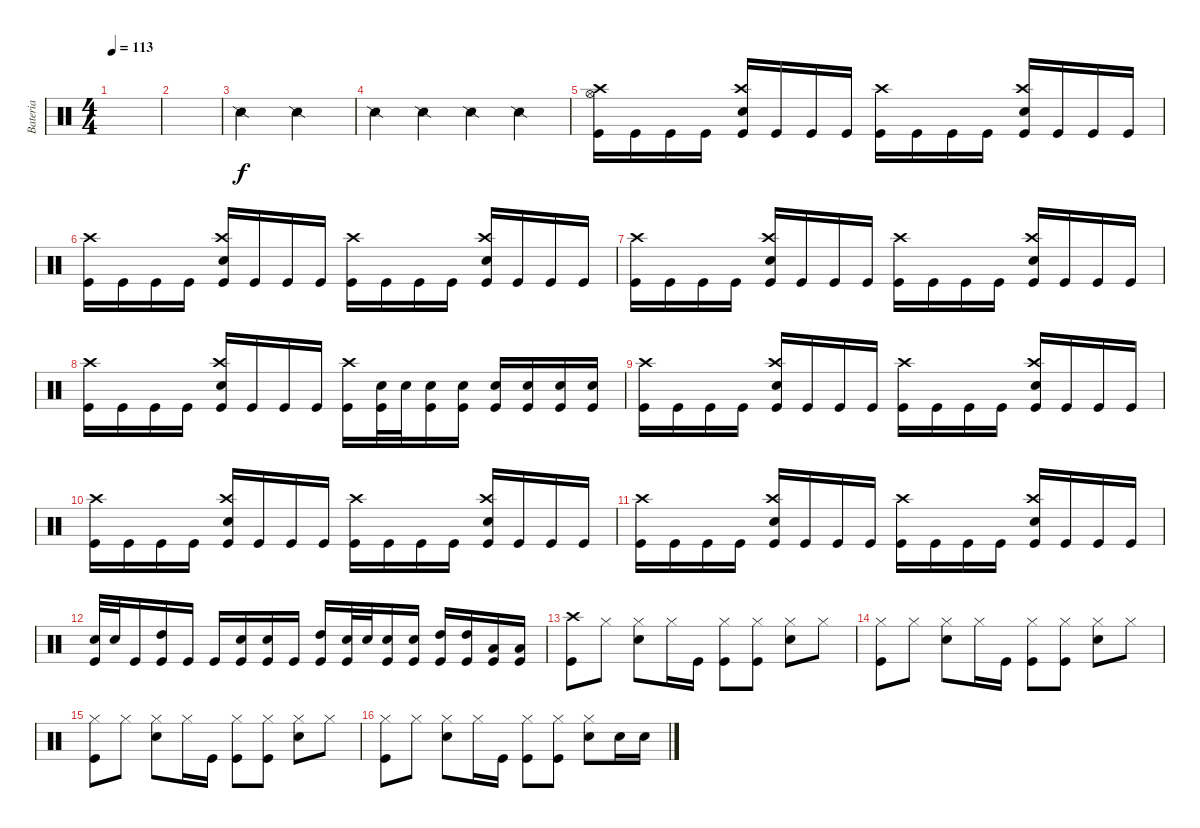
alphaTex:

\track ("Bateria" "Bateria") {instrument percussion}
\staff {score}
\articulation defaults
\ts (4 4)
\tempo 113
\clef neutral
\ks c
|
|
"Snare (side stick) 2".2 "Snare (side stick) 2".2 |
"Snare (side stick) 2".4 "Snare (side stick) 2".4 "Snare (side stick) 2".4 "Snare (side stick) 2".4 |
("Kick (hit)" "Crash high (hit)" "Hi-Hat (open)").16 "Kick (hit)".16 "Kick (hit)".16 "Kick (hit)".16 ("Kick (hit)" "Crash high (hit)" "Snare (hit) 2").16 "Kick (hit)".16 "Kick (hit)".16 "Kick (hit)".16 ("Kick (hit)" "Crash high (hit)").16 "Kick (hit)".16 "Kick (hit)".16 "Kick (hit)".16 ("Kick (hit)" "Crash high (hit)" "Snare (hit) 2").16 "Kick (hit)".16 "Kick (hit)".16 "Kick (hit)".16 |
("Kick (hit)" "Crash high (hit)").16 "Kick (hit)".16 "Kick (hit)".16 "Kick (hit)".16 ("Kick (hit)" "Crash high (hit)" "Snare (hit) 2").16 "Kick (hit)".16 "Kick (hit)".16 "Kick (hit)".16 ("Kick (hit)" "Crash high (hit)").16 "Kick (hit)".16 "Kick (hit)".16 "Kick (hit)".16 ("Kick (hit)" "Crash high (hit)" "Snare (hit) 2").16 "Kick (hit)".16 "Kick (hit)".16 "Kick (hit)".16 |
("Kick (hit)" "Crash high (hit)").16 "Kick (hit)".16 "Kick (hit)".16 "Kick (hit)".16 ("Kick (hit)" "Crash high (hit)" "Snare (hit) 2").16 "Kick (hit)".16 "Kick (hit)".16 "Kick (hit)".16 ("Kick (hit)" "Crash high (hit)").16 "Kick (hit)".16 "Kick (hit)".16 "Kick (hit)".16 ("Kick (hit)" "Crash high (hit)" "Snare (hit) 2").16 "Kick (hit)".16 "Kick (hit)".16 "Kick (hit)".16 |
("Kick (hit)" "Crash high (hit)").16 "Kick (hit)".16 "Kick (hit)".16 "Kick (hit)".16 ("Kick (hit)" "Crash high (hit)" "Snare (hit) 2").16 "Kick (hit)".16 "Kick (hit)".16 "Kick (hit)".16 ("Kick (hit)" "Crash high (hit)").16 ("Kick (hit)" "Snare (hit) 2").32 "Snare (hit) 2".32 ("Kick (hit)" "Snare (hit) 2").16 ("Kick (hit)" "Snare (hit) 2").16 ("Kick (hit)" "Snare (hit) 2").16 ("Kick (hit)" "Snare (hit) 2").16 ("Kick (hit)" "Snare (hit) 2").16 ("Kick (hit)" "Snare (hit) 2").16 |
("Kick (hit)" "Crash high (hit)").16 "Kick (hit)".16 "Kick (hit)".16 "Kick (hit)".16 ("Kick (hit)" "Crash high (hit)" "Snare (hit) 2").16 "Kick (hit)".16 "Kick (hit)".16 "Kick (hit)".16 ("Kick (hit)" "Crash high (hit)").16 "Kick (hit)".16 "Kick (hit)".16 "Kick (hit)".16 ("Kick (hit)" "Crash high (hit)" "Snare (hit) 2").16 "Kick (hit)".16 "Kick (hit)".16 "Kick (hit)".16 |
("Kick (hit)" "Crash high (hit)").16 "Kick (hit)".16 "Kick (hit)".16 "Kick (hit)".16 ("Kick (hit)" "Crash high (hit)" "Snare (hit) 2").16 "Kick (hit)".16 "Kick (hit)".16 "Kick (hit)".16 ("Kick (hit)" "Crash high (hit)").16 "Kick (hit)".16 "Kick (hit)".16 "Kick (hit)".16 ("Kick (hit)" "Crash high (hit)" "Snare (hit) 2").16 "Kick (hit)".16 "Kick (hit)".16 "Kick (hit)".16 |
("Kick (hit)" "Crash high (hit)").16 "Kick (hit)".16 "Kick (hit)".16 "Kick (hit)".16 ("Kick (hit)" "Crash high (hit)" "Snare (hit) 2").16 "Kick (hit)".16 "Kick (hit)".16 "Kick (hit)".16 ("Kick (hit)" "Crash high (hit)").16 "Kick (hit)".16 "Kick (hit)".16 "Kick (hit)".16 ("Kick (hit)" "Crash high (hit)" "Snare (hit) 2").16 "Kick (hit)".16 "Kick (hit)".16 "Kick (hit)".16 |
("Kick (hit)" "Snare (hit) 2").32 "Snare (hit) 2".32 "Kick (hit)".16 ("Kick (hit)" "High Tom (hit)").16 "Kick (hit)".16 "Kick (hit)".16 ("Kick (hit)" "Snare (hit) 2").16 ("Kick (hit)" "Snare (hit) 2").16 "Kick (hit)".16 ("Kick (hit)" "High Tom (hit)").16 ("Kick (hit)" "Snare (hit) 2").32 "Snare (hit) 2".32 ("Kick (hit)" "Snare (hit) 2").16 ("Kick (hit)" "Snare (hit) 2").16 ("Kick (hit)" "High Tom (hit)").16 ("Kick (hit)" "High Tom (hit)").16 ("Kick (hit)" "Low Tom (hit)").16 ("Kick (hit)" "Low Tom (hit)").16 |
("Kick (hit)" "Crash high (hit)").8 "Hi-Hat (closed)".8 ("Hi-Hat (closed)" "Snare (hit) 2").8 "Hi-Hat (closed)".16 "Kick (hit)".16 ("Kick (hit)" "Hi-Hat (closed)").8 ("Kick (hit)" "Hi-Hat (closed)").8 ("Hi-Hat (closed)" "Snare (hit) 2").8 "Hi-Hat (closed)".8 |
("Kick (hit)" "Hi-Hat (closed)").8 "Hi-Hat (closed)".8 ("Hi-Hat (closed)" "Snare (hit) 2").8 "Hi-Hat (closed)".16 "Kick (hit)".16 ("Kick (hit)" "Hi-Hat (closed)").8 ("Kick (hit)" "Hi-Hat (closed)").8 ("Hi-Hat (closed)" "Snare (hit) 2").8 "Hi-Hat (closed)".8 |
("Kick (hit)" "Hi-Hat (closed)").8 "Hi-Hat (closed)".8 ("Hi-Hat (closed)" "Snare (hit) 2").8 "Hi-Hat (closed)".16 "Kick (hit)".16 ("Kick (hit)" "Hi-Hat (closed)").8 ("Kick (hit)" "Hi-Hat (closed)").8 ("Hi-Hat (closed)" "Snare (hit) 2").8 "Hi-Hat (closed)".8 |
("Kick (hit)" "Hi-Hat (closed)").8 "Hi-Hat (closed)".8 ("Hi-Hat (closed)" "Snare (hit) 2").8 "Hi-Hat (closed)".16 "Kick (hit)".16 ("Kick (hit)" "Hi-Hat (closed)").8 ("Kick (hit)" "Hi-Hat (closed)").8 ("Hi-Hat (closed)" "Snare (hit) 2").8 "Snare (hit) 2".16 "Snare (hit) 2".16
